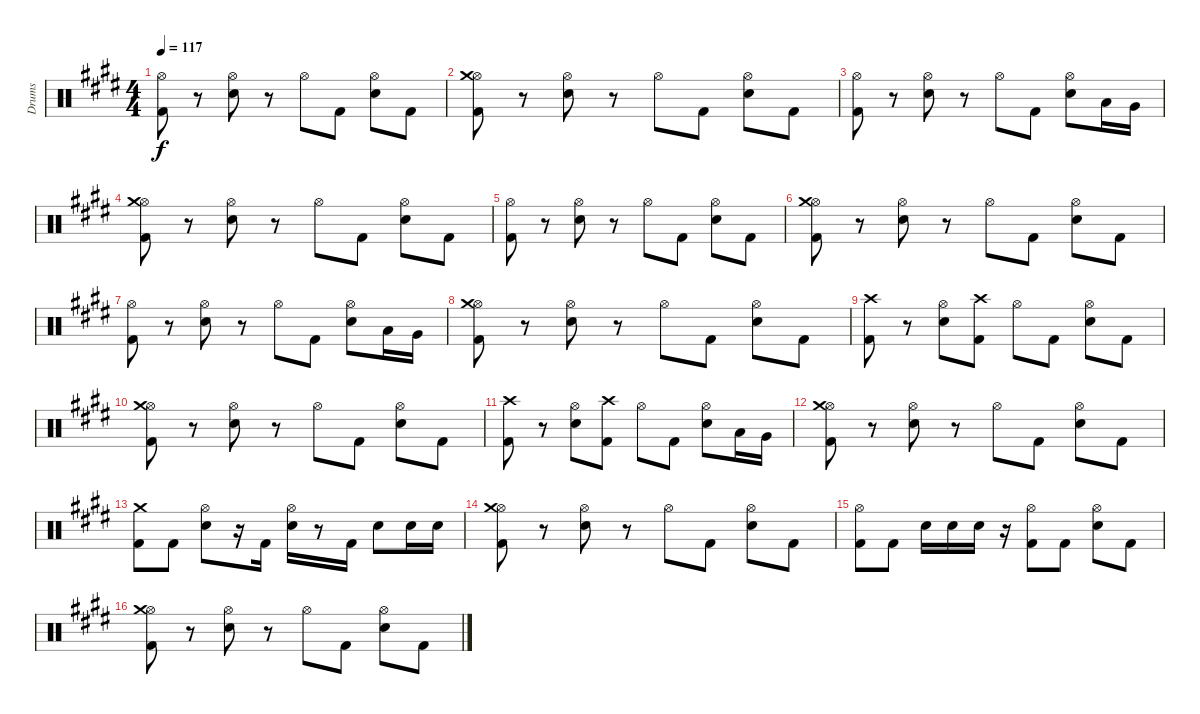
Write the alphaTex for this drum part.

\track ("Drums" "Drums") {instrument percussion}
\staff {score}
\articulation defaults
\ts (4 4)
\tempo 117
\clef neutral
\ks c#minor
("Hi-Hat (open)" "Kick (hit) 2").8{dy f} r.8 ("Hi-Hat (open)" "Snare (hit) 2").8 r.8 "Hi-Hat (open)".8 "Kick (hit) 2".8 ("Hi-Hat (open)" "Snare (hit) 2").8 "Kick (hit) 2".8 |
("Hi-Hat (open)" "Kick (hit) 2" "Crash medium (hit)").8 r.8 ("Hi-Hat (open)" "Snare (hit) 2").8 r.8 "Hi-Hat (open)".8 "Kick (hit) 2".8 ("Hi-Hat (open)" "Snare (hit) 2").8 "Kick (hit) 2".8 |
("Hi-Hat (open)" "Kick (hit) 2").8 r.8 ("Hi-Hat (open)" "Snare (hit) 2").8 r.8 "Hi-Hat (open)".8 "Kick (hit) 2".8 ("Hi-Hat (open)" "Snare (hit) 2").8 "Low Tom (hit)".16 "Very Low Tom (hit)".16 |
("Hi-Hat (open)" "Kick (hit) 2" "Crash medium (hit)").8 r.8 ("Hi-Hat (open)" "Snare (hit) 2").8 r.8 "Hi-Hat (open)".8 "Kick (hit) 2".8 ("Hi-Hat (open)" "Snare (hit) 2").8 "Kick (hit) 2".8 |
("Hi-Hat (open)" "Kick (hit) 2").8 r.8 ("Hi-Hat (open)" "Snare (hit) 2").8 r.8 "Hi-Hat (open)".8 "Kick (hit) 2".8 ("Hi-Hat (open)" "Snare (hit) 2").8 "Kick (hit) 2".8 |
("Hi-Hat (open)" "Kick (hit) 2" "Crash medium (hit)").8 r.8 ("Hi-Hat (open)" "Snare (hit) 2").8 r.8 "Hi-Hat (open)".8 "Kick (hit) 2".8 ("Hi-Hat (open)" "Snare (hit) 2").8 "Kick (hit) 2".8 |
("Hi-Hat (open)" "Kick (hit) 2").8 r.8 ("Hi-Hat (open)" "Snare (hit) 2").8 r.8 "Hi-Hat (open)".8 "Kick (hit) 2".8 ("Hi-Hat (open)" "Snare (hit) 2").8 "Low Tom (hit)".16 "Very Low Tom (hit)".16 |
("Hi-Hat (open)" "Kick (hit) 2" "Crash medium (hit)").8 r.8 ("Hi-Hat (open)" "Snare (hit) 2").8 r.8 "Hi-Hat (open)".8 "Kick (hit) 2".8 ("Hi-Hat (open)" "Snare (hit) 2").8 "Kick (hit) 2".8 |
("Kick (hit) 2" "Crash high (hit)").8 r.8 ("Hi-Hat (open)" "Snare (hit) 2").8 ("Crash high (hit)" "Kick (hit) 2").8 "Hi-Hat (open)".8 "Kick (hit) 2".8 ("Hi-Hat (open)" "Snare (hit) 2").8 "Kick (hit) 2".8 |
("Hi-Hat (open)" "Kick (hit) 2" "Crash medium (hit)").8 r.8 ("Hi-Hat (open)" "Snare (hit) 2").8 r.8 "Hi-Hat (open)".8 "Kick (hit) 2".8 ("Hi-Hat (open)" "Snare (hit) 2").8 "Kick (hit) 2".8 |
("Kick (hit) 2" "Crash high (hit)").8 r.8 ("Hi-Hat (open)" "Snare (hit) 2").8 ("Crash high (hit)" "Kick (hit) 2").8 "Hi-Hat (open)".8 "Kick (hit) 2".8 ("Hi-Hat (open)" "Snare (hit) 2").8 "Low Tom (hit)".16 "Very Low Tom (hit)".16 |
("Hi-Hat (open)" "Kick (hit) 2" "Crash medium (hit)").8 r.8 ("Hi-Hat (open)" "Snare (hit) 2").8 r.8 "Hi-Hat (open)".8 "Kick (hit) 2".8 ("Hi-Hat (open)" "Snare (hit) 2").8 "Kick (hit) 2".8 |
("Kick (hit) 2" "Crash medium (hit)").8 "Kick (hit) 2".8 ("Hi-Hat (open)" "Snare (hit) 2").8 r.16 "Kick (hit) 2".16 ("Hi-Hat (open)" "Snare (hit) 2").16 r.8 "Kick (hit) 2".16 "Snare (hit) 2".8 "Snare (hit) 2".16 "Snare (hit) 2".16 |
("Hi-Hat (open)" "Kick (hit) 2" "Crash medium (hit)").8 r.8 ("Hi-Hat (open)" "Snare (hit) 2").8 r.8 "Hi-Hat (open)".8 "Kick (hit) 2".8 ("Hi-Hat (open)" "Snare (hit) 2").8 "Kick (hit) 2".8 |
("Hi-Hat (open)" "Kick (hit) 2").8 "Kick (hit) 2".8 "Snare (hit) 2".16 "Snare (hit) 2".16 "Snare (hit) 2".16 r.16 ("Hi-Hat (open)" "Kick (hit) 2").8 "Kick (hit) 2".8 ("Hi-Hat (open)" "Snare (hit) 2").8 "Kick (hit) 2".8 |
("Hi-Hat (open)" "Kick (hit) 2" "Crash medium (hit)").8 r.8 ("Hi-Hat (open)" "Snare (hit) 2").8 r.8 "Hi-Hat (open)".8 "Kick (hit) 2".8 ("Hi-Hat (open)" "Snare (hit) 2").8 "Kick (hit) 2".8
